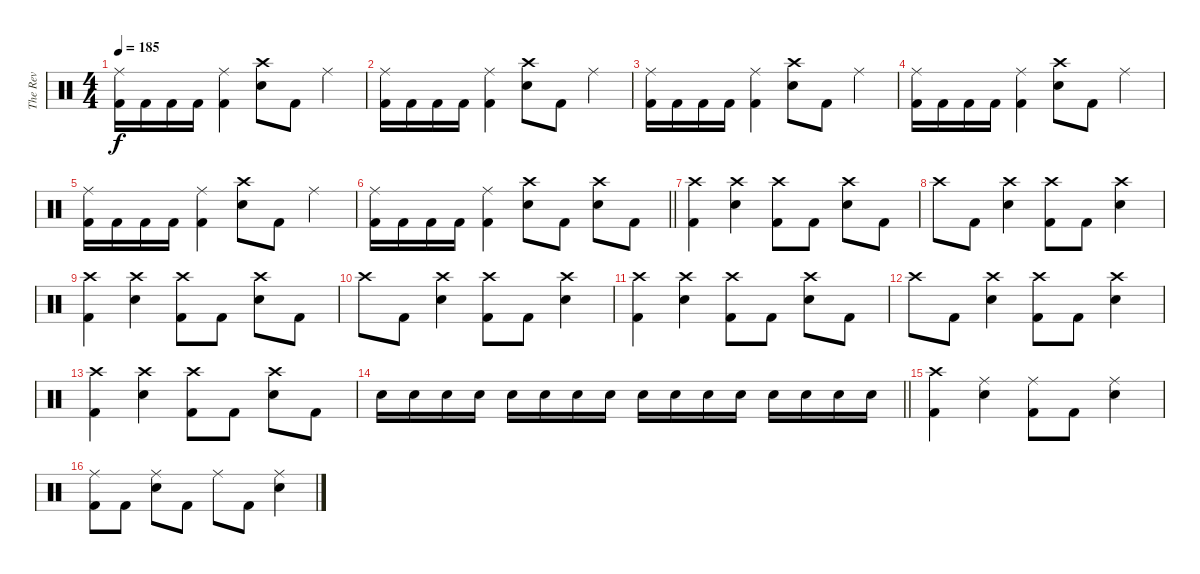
\track ("The Rev" "The Rev") {instrument percussion}
\staff {score}
\articulation defaults
\ts (4 4)
\tempo 185
\clef neutral
\ks c
("Ride (middle)" "Kick (hit) 2").16{dy f} "Kick (hit) 2".16 "Kick (hit) 2".16 "Kick (hit) 2".16 ("Ride (middle)" "Kick (hit) 2").4 ("Crash high (hit)" "Electric Snare (hit)").8 "Kick (hit) 2".8 "Ride (middle)".4 |
("Ride (middle)" "Kick (hit) 2").16 "Kick (hit) 2".16 "Kick (hit) 2".16 "Kick (hit) 2".16 ("Ride (middle)" "Kick (hit) 2").4 ("Crash high (hit)" "Electric Snare (hit)").8 "Kick (hit) 2".8 "Ride (middle)".4 |
("Ride (middle)" "Kick (hit) 2").16 "Kick (hit) 2".16 "Kick (hit) 2".16 "Kick (hit) 2".16 ("Ride (middle)" "Kick (hit) 2").4 ("Crash high (hit)" "Electric Snare (hit)").8 "Kick (hit) 2".8 "Ride (middle)".4 |
("Ride (middle)" "Kick (hit) 2").16 "Kick (hit) 2".16 "Kick (hit) 2".16 "Kick (hit) 2".16 ("Ride (middle)" "Kick (hit) 2").4 ("Crash high (hit)" "Electric Snare (hit)").8 "Kick (hit) 2".8 "Ride (middle)".4 |
("Ride (middle)" "Kick (hit) 2").16 "Kick (hit) 2".16 "Kick (hit) 2".16 "Kick (hit) 2".16 ("Ride (middle)" "Kick (hit) 2").4 ("Crash high (hit)" "Electric Snare (hit)").8 "Kick (hit) 2".8 "Ride (middle)".4 |
\barLineRight lightlight
("Ride (middle)" "Kick (hit) 2").16 "Kick (hit) 2".16 "Kick (hit) 2".16 "Kick (hit) 2".16 ("Ride (middle)" "Kick (hit) 2").4 ("Crash high (hit)" "Electric Snare (hit)").8 "Kick (hit) 2".8 ("Crash high (hit)" "Electric Snare (hit)").8 "Kick (hit) 2".8 |
("Crash high (hit)" "Kick (hit) 2").4 ("Crash high (hit)" "Electric Snare (hit)").4 ("Crash high (hit)" "Kick (hit) 2").8 "Kick (hit) 2".8 ("Crash high (hit)" "Electric Snare (hit)").8 "Kick (hit) 2".8 |
"Crash high (hit)".8 "Kick (hit) 2".8 ("Crash high (hit)" "Electric Snare (hit)").4 ("Crash high (hit)" "Kick (hit) 2").8 "Kick (hit) 2".8 ("Crash high (hit)" "Electric Snare (hit)").4 |
("Crash high (hit)" "Kick (hit) 2").4 ("Crash high (hit)" "Electric Snare (hit)").4 ("Crash high (hit)" "Kick (hit) 2").8 "Kick (hit) 2".8 ("Crash high (hit)" "Electric Snare (hit)").8 "Kick (hit) 2".8 |
"Crash high (hit)".8 "Kick (hit) 2".8 ("Crash high (hit)" "Electric Snare (hit)").4 ("Crash high (hit)" "Kick (hit) 2").8 "Kick (hit) 2".8 ("Crash high (hit)" "Electric Snare (hit)").4 |
("Crash high (hit)" "Kick (hit) 2").4 ("Crash high (hit)" "Electric Snare (hit)").4 ("Crash high (hit)" "Kick (hit) 2").8 "Kick (hit) 2".8 ("Crash high (hit)" "Electric Snare (hit)").8 "Kick (hit) 2".8 |
"Crash high (hit)".8 "Kick (hit) 2".8 ("Crash high (hit)" "Electric Snare (hit)").4 ("Crash high (hit)" "Kick (hit) 2").8 "Kick (hit) 2".8 ("Crash high (hit)" "Electric Snare (hit)").4 |
("Crash high (hit)" "Kick (hit) 2").4 ("Crash high (hit)" "Electric Snare (hit)").4 ("Crash high (hit)" "Kick (hit) 2").8 "Kick (hit) 2".8 ("Crash high (hit)" "Electric Snare (hit)").8 "Kick (hit) 2".8 |
\barLineRight lightlight "Electric Snare (hit)".16 "Electric Snare (hit)".16 "Electric Snare (hit)".16 "Electric Snare (hit)".16 "Electric Snare (hit)".16 "Electric Snare (hit)".16 "Electric Snare (hit)".16 "Electric Snare (hit)".16 "Electric Snare (hit)".16 "Electric Snare (hit)".16 "Electric Snare (hit)".16 "Electric Snare (hit)".16 "Electric Snare (hit)".16 "Electric Snare (hit)".16 "Electric Snare (hit)".16 "Electric Snare (hit)".16
|
("Crash high (hit)" "Kick (hit) 2").4 ("Ride (middle)" "Electric Snare (hit)").4 ("Ride (middle)" "Kick (hit) 2").8 "Kick (hit) 2".8 ("Ride (middle)" "Electric Snare (hit)").4 |
("Ride (middle)" "Kick (hit) 2").8 "Kick (hit) 2".8 ("Ride (middle)" "Electric Snare (hit)").8 "Kick (hit) 2".8 "Ride (middle)".8 "Kick (hit) 2".8 ("Ride (middle)" "Electric Snare (hit)").4
